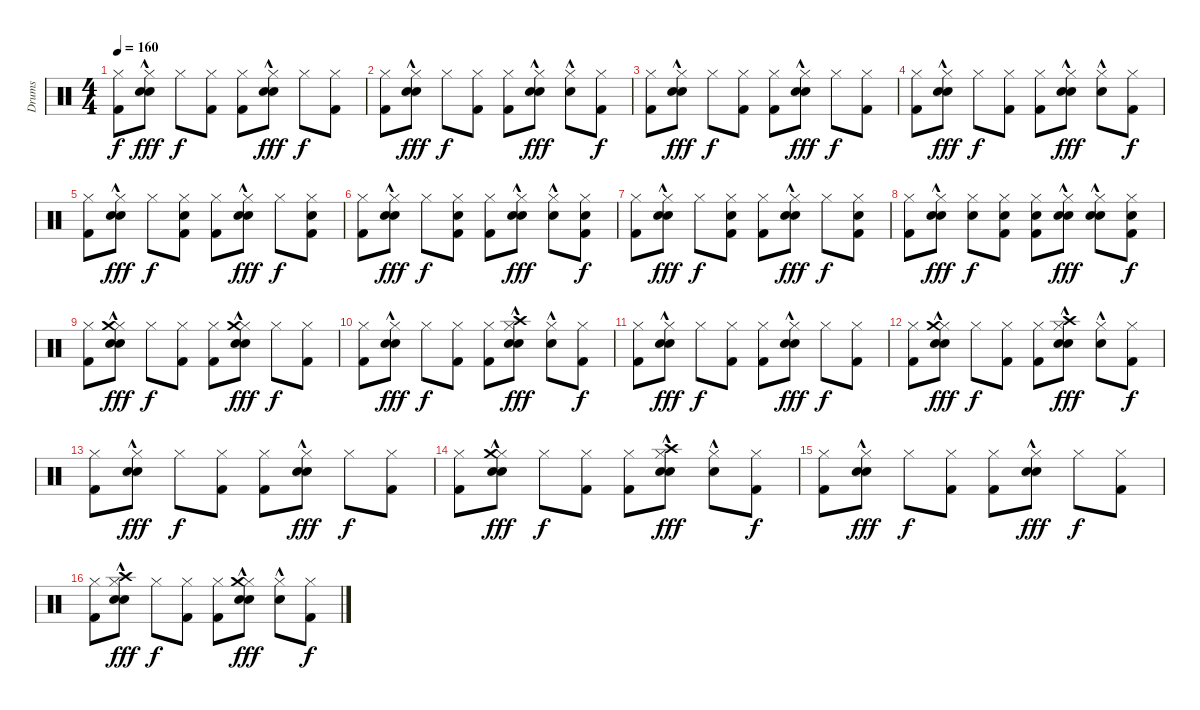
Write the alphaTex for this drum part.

\track ("Drums" "Drums") {instrument percussion}
\staff {score}
\articulation defaults
\ts (4 4)
\tempo 160
\clef neutral
\ks c
("Hi-Hat (closed)" "Kick (hit) 2").8{dy f} ("Hi-Hat (closed)" "Electric Snare (hit)" "Hand Clap (hit)"{hac}).8{dy fff} "Hi-Hat (closed)".8{dy f} ("Hi-Hat (closed)" "Kick (hit) 2").8 ("Hi-Hat (closed)" "Kick (hit) 2").8 ("Hi-Hat (closed)" "Electric Snare (hit)" "Hand Clap (hit)"{hac}).8{dy fff} "Hi-Hat (closed)".8{dy f} ("Hi-Hat (closed)" "Kick (hit) 2").8 |
("Hi-Hat (closed)" "Kick (hit) 2").8 ("Hi-Hat (closed)" "Electric Snare (hit)" "Hand Clap (hit)"{hac}).8{dy fff} "Hi-Hat (closed)".8{dy f} ("Hi-Hat (closed)" "Kick (hit) 2").8 ("Hi-Hat (closed)" "Kick (hit) 2").8 ("Hi-Hat (closed)" "Electric Snare (hit)" "Hand Clap (hit)"{hac}).8{dy fff} ("Hi-Hat (closed)" "Hand Clap (hit)"{hac}).8 ("Hi-Hat (closed)" "Kick (hit) 2").8{dy f} |
("Hi-Hat (closed)" "Kick (hit) 2").8 ("Hi-Hat (closed)" "Electric Snare (hit)" "Hand Clap (hit)"{hac}).8{dy fff} "Hi-Hat (closed)".8{dy f} ("Hi-Hat (closed)" "Kick (hit) 2").8 ("Hi-Hat (closed)" "Kick (hit) 2").8 ("Hi-Hat (closed)" "Electric Snare (hit)" "Hand Clap (hit)"{hac}).8{dy fff} "Hi-Hat (closed)".8{dy f} ("Hi-Hat (closed)" "Kick (hit) 2").8 |
("Hi-Hat (closed)" "Kick (hit) 2").8 ("Hi-Hat (closed)" "Electric Snare (hit)" "Hand Clap (hit)"{hac}).8{dy fff} "Hi-Hat (closed)".8{dy f} ("Hi-Hat (closed)" "Kick (hit) 2").8 ("Hi-Hat (closed)" "Kick (hit) 2").8 ("Hi-Hat (closed)" "Electric Snare (hit)" "Hand Clap (hit)"{hac}).8{dy fff} ("Hi-Hat (closed)" "Hand Clap (hit)"{hac}).8 ("Hi-Hat (closed)" "Kick (hit) 2").8{dy f} |
("Hi-Hat (closed)" "Kick (hit) 2").8 ("Hi-Hat (closed)" "Electric Snare (hit)" "Hand Clap (hit)"{hac}).8{dy fff} "Hi-Hat (closed)".8{dy f} ("Hi-Hat (closed)" "Electric Snare (hit)" "Kick (hit) 2").8 ("Hi-Hat (closed)" "Kick (hit) 2").8 ("Hi-Hat (closed)" "Electric Snare (hit)" "Hand Clap (hit)"{hac}).8{dy fff} "Hi-Hat (closed)".8{dy f} ("Hi-Hat (closed)" "Electric Snare (hit)" "Kick (hit) 2").8 |
("Hi-Hat (closed)" "Kick (hit) 2").8 ("Hi-Hat (closed)" "Electric Snare (hit)" "Hand Clap (hit)"{hac}).8{dy fff} "Hi-Hat (closed)".8{dy f} ("Hi-Hat (closed)" "Electric Snare (hit)" "Kick (hit) 2").8 ("Hi-Hat (closed)" "Kick (hit) 2").8 ("Hi-Hat (closed)" "Electric Snare (hit)" "Hand Clap (hit)"{hac}).8{dy fff} ("Hi-Hat (closed)" "Hand Clap (hit)"{hac}).8 ("Hi-Hat (closed)" "Electric Snare (hit)" "Kick (hit) 2").8{dy f} |
("Hi-Hat (closed)" "Kick (hit) 2").8 ("Hi-Hat (closed)" "Electric Snare (hit)" "Hand Clap (hit)"{hac}).8{dy fff} "Hi-Hat (closed)".8{dy f} ("Hi-Hat (closed)" "Electric Snare (hit)" "Kick (hit) 2").8 ("Hi-Hat (closed)" "Kick (hit) 2").8 ("Hi-Hat (closed)" "Electric Snare (hit)" "Hand Clap (hit)"{hac}).8{dy fff} "Hi-Hat (closed)".8{dy f} ("Hi-Hat (closed)" "Electric Snare (hit)" "Kick (hit) 2").8 |
("Hi-Hat (closed)" "Kick (hit) 2").8 ("Hi-Hat (closed)" "Electric Snare (hit)" "Hand Clap (hit)"{hac}).8{dy fff} ("Hi-Hat (closed)" "Electric Snare (hit)").8{dy f} ("Hi-Hat (closed)" "Electric Snare (hit)" "Kick (hit) 2").8 ("Hi-Hat (closed)" "Electric Snare (hit)" "Kick (hit) 2").8 ("Hi-Hat (closed)" "Electric Snare (hit)" "Hand Clap (hit)"{hac}).8{dy fff} ("Hi-Hat (closed)" "Electric Snare (hit)" "Hand Clap (hit)"{hac}).8 ("Hi-Hat (closed)" "Electric Snare (hit)" "Kick (hit) 2").8{dy f} |
("Hi-Hat (closed)" "Kick (hit) 2").8 ("Hi-Hat (closed)" "Electric Snare (hit)" "Crash medium (hit)" "Hand Clap (hit)"{hac}).8{dy fff} "Hi-Hat (closed)".8{dy f} ("Hi-Hat (closed)" "Kick (hit) 2").8 ("Hi-Hat (closed)" "Kick (hit) 2").8 ("Hi-Hat (closed)" "Electric Snare (hit)" "Crash medium (hit)" "Hand Clap (hit)"{hac}).8{dy fff} "Hi-Hat (closed)".8{dy f} ("Hi-Hat (closed)" "Kick (hit) 2").8 |
("Hi-Hat (closed)" "Kick (hit) 2").8 ("Hi-Hat (closed)" "Electric Snare (hit)" "Hand Clap (hit)"{hac}).8{dy fff} "Hi-Hat (closed)".8{dy f} ("Hi-Hat (closed)" "Kick (hit) 2").8 ("Hi-Hat (closed)" "Kick (hit) 2").8 ("Hi-Hat (closed)" "Electric Snare (hit)" "Crash high (hit)" "Hand Clap (hit)"{hac}).8{dy fff} ("Hi-Hat (closed)" "Hand Clap (hit)"{hac}).8 ("Hi-Hat (closed)" "Kick (hit) 2").8{dy f} |
("Hi-Hat (closed)" "Kick (hit) 2").8 ("Hi-Hat (closed)" "Electric Snare (hit)" "Hand Clap (hit)"{hac}).8{dy fff} "Hi-Hat (closed)".8{dy f} ("Hi-Hat (closed)" "Kick (hit) 2").8 ("Hi-Hat (closed)" "Kick (hit) 2").8 ("Hi-Hat (closed)" "Electric Snare (hit)" "Hand Clap (hit)"{hac}).8{dy fff} "Hi-Hat (closed)".8{dy f} ("Hi-Hat (closed)" "Kick (hit) 2").8 |
("Hi-Hat (closed)" "Kick (hit) 2").8 ("Hi-Hat (closed)" "Electric Snare (hit)" "Crash medium (hit)" "Hand Clap (hit)"{hac}).8{dy fff} "Hi-Hat (closed)".8{dy f} ("Hi-Hat (closed)" "Kick (hit) 2").8 ("Hi-Hat (closed)" "Kick (hit) 2").8 ("Hi-Hat (closed)" "Electric Snare (hit)" "Crash high (hit)" "Hand Clap (hit)"{hac}).8{dy fff} ("Hi-Hat (closed)" "Hand Clap (hit)"{hac}).8 ("Hi-Hat (closed)" "Kick (hit) 2").8{dy f} |
("Hi-Hat (closed)" "Kick (hit) 2").8 ("Hi-Hat (closed)" "Electric Snare (hit)" "Hand Clap (hit)"{hac}).8{dy fff} "Hi-Hat (closed)".8{dy f} ("Hi-Hat (closed)" "Kick (hit) 2").8 ("Hi-Hat (closed)" "Kick (hit) 2").8 ("Hi-Hat (closed)" "Electric Snare (hit)" "Hand Clap (hit)"{hac}).8{dy fff} "Hi-Hat (closed)".8{dy f} ("Hi-Hat (closed)" "Kick (hit) 2").8 |
("Hi-Hat (closed)" "Kick (hit) 2").8 ("Hi-Hat (closed)" "Electric Snare (hit)" "Crash medium (hit)" "Hand Clap (hit)"{hac}).8{dy fff} "Hi-Hat (closed)".8{dy f} ("Hi-Hat (closed)" "Kick (hit) 2").8 ("Hi-Hat (closed)" "Kick (hit) 2").8 ("Hi-Hat (closed)" "Electric Snare (hit)" "Crash high (hit)" "Hand Clap (hit)"{hac}).8{dy fff} ("Hi-Hat (closed)" "Hand Clap (hit)"{hac}).8 ("Hi-Hat (closed)" "Kick (hit) 2").8{dy f} |
("Hi-Hat (closed)" "Kick (hit) 2").8 ("Hi-Hat (closed)" "Electric Snare (hit)" "Hand Clap (hit)"{hac}).8{dy fff} "Hi-Hat (closed)".8{dy f} ("Hi-Hat (closed)" "Kick (hit) 2").8 ("Hi-Hat (closed)" "Kick (hit) 2").8 ("Hi-Hat (closed)" "Electric Snare (hit)" "Hand Clap (hit)"{hac}).8{dy fff} "Hi-Hat (closed)".8{dy f} ("Hi-Hat (closed)" "Kick (hit) 2").8 |
("Hi-Hat (closed)" "Kick (hit) 2").8 ("Hi-Hat (closed)" "Electric Snare (hit)" "Crash high (hit)" "Hand Clap (hit)"{hac}).8{dy fff} "Hi-Hat (closed)".8{dy f} ("Hi-Hat (closed)" "Kick (hit) 2").8 ("Hi-Hat (closed)" "Kick (hit) 2").8 ("Hi-Hat (closed)" "Electric Snare (hit)" "Crash medium (hit)" "Hand Clap (hit)"{hac}).8{dy fff} ("Hi-Hat (closed)" "Hand Clap (hit)"{hac}).8 ("Hi-Hat (closed)" "Kick (hit) 2").8{dy f}
